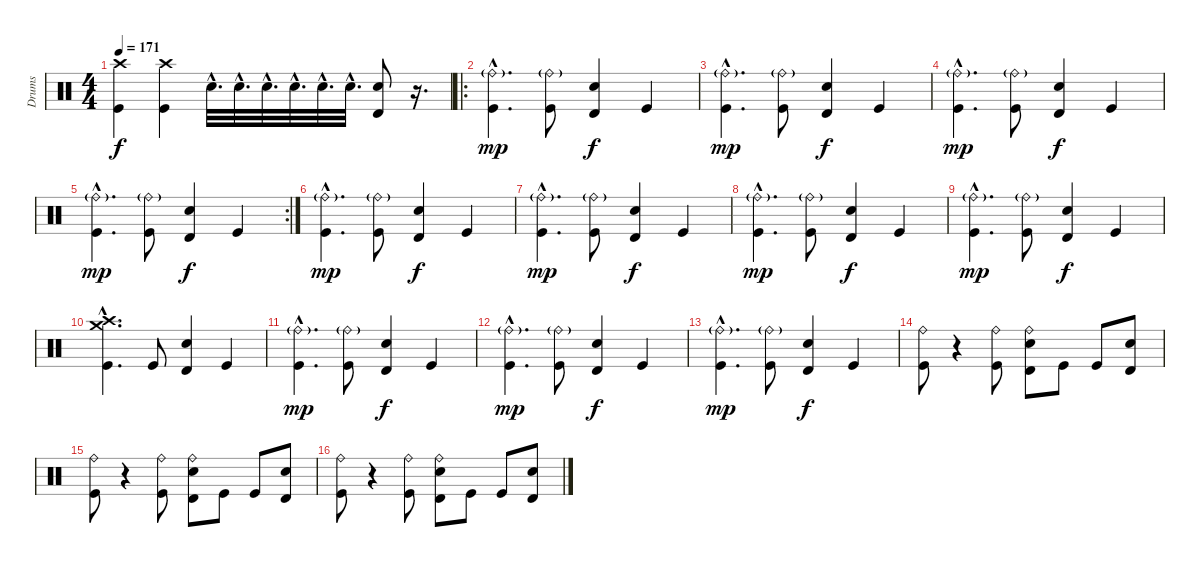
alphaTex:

\track ("Drums" "Drums") {instrument percussion}
\staff {score}
\articulation defaults
\ts (4 4)
\tempo 171
\clef neutral
\ks c
("Crash high (hit)" "Kick (hit)").4{dy f} ("Crash high (hit)" "Kick (hit)").4 "Electric Snare (hit)"{hac}.32{d} "Electric Snare (hit)"{hac}.32{d} "Electric Snare (hit)"{hac}.32{d} "Electric Snare (hit)"{hac}.32{d} "Electric Snare (hit)"{hac}.32{d} "Electric Snare (hit)"{hac}.32{d} ("Electric Snare (hit)" "Timbale high (hit)").8 r.16{d} |
\ro
("Ride (bell)"{g hac} "Kick (hit)"{hac}).4{d dy mp} ("Ride (bell)"{g} "Kick (hit)").8 ("Timbale high (hit)" "Electric Snare (hit)").4{dy f} "Kick (hit)".4 |
("Ride (bell)"{g hac} "Kick (hit)"{hac}).4{d dy mp} ("Ride (bell)"{g} "Kick (hit)").8 ("Timbale high (hit)" "Electric Snare (hit)").4{dy f} "Kick (hit)".4 |
("Ride (bell)"{g hac} "Kick (hit)"{hac}).4{d dy mp} ("Ride (bell)"{g} "Kick (hit)").8 ("Timbale high (hit)" "Electric Snare (hit)").4{dy f} "Kick (hit)".4 |
\rc 2
("Ride (bell)"{g hac} "Kick (hit)"{hac}).4{d dy mp} ("Ride (bell)"{g} "Kick (hit)").8 ("Timbale high (hit)" "Electric Snare (hit)").4{dy f} "Kick (hit)".4 |
("Ride (bell)"{g hac} "Kick (hit)"{hac}).4{d dy mp} ("Ride (bell)"{g} "Kick (hit)").8 ("Timbale high (hit)" "Electric Snare (hit)").4{dy f} "Kick (hit)".4 |
("Ride (bell)"{g hac} "Kick (hit)"{hac}).4{d dy mp} ("Ride (bell)"{g} "Kick (hit)").8 ("Timbale high (hit)" "Electric Snare (hit)").4{dy f} "Kick (hit)".4 |
("Ride (bell)"{g hac} "Kick (hit)"{hac}).4{d dy mp} ("Ride (bell)"{g} "Kick (hit)").8 ("Timbale high (hit)" "Electric Snare (hit)").4{dy f} "Kick (hit)".4 |
("Ride (bell)"{g hac} "Kick (hit)"{hac}).4{d dy mp} ("Ride (bell)"{g} "Kick (hit)").8 ("Timbale high (hit)" "Electric Snare (hit)").4{dy f} "Kick (hit)".4 |
("Crash medium (hit)"{hac} "Crash high (hit)"{hac} "Kick (hit)"{hac}).4{d} "Kick (hit)".8 ("Timbale high (hit)" "Electric Snare (hit)").4 "Kick (hit)".4 |
("Ride (bell)"{g hac} "Kick (hit)"{hac}).4{d dy mp} ("Ride (bell)"{g} "Kick (hit)").8 ("Timbale high (hit)" "Electric Snare (hit)").4{dy f} "Kick (hit)".4 |
("Ride (bell)"{g hac} "Kick (hit)"{hac}).4{d dy mp} ("Ride (bell)"{g} "Kick (hit)").8 ("Timbale high (hit)" "Electric Snare (hit)").4{dy f} "Kick (hit)".4 |
("Ride (bell)"{g hac} "Kick (hit)"{hac}).4{d dy mp} ("Ride (bell)"{g} "Kick (hit)").8 ("Timbale high (hit)" "Electric Snare (hit)").4{dy f} "Kick (hit)".4 |
("Ride (bell)" "Kick (hit)").8 r.4 ("Ride (bell)" "Kick (hit)").8 ("Ride (bell)" "Timbale high (hit)" "Electric Snare (hit)").8 "Kick (hit)".8 "Kick (hit)".8 ("Timbale high (hit)" "Electric Snare (hit)").8 |
("Ride (bell)" "Kick (hit)").8 r.4 ("Ride (bell)" "Kick (hit)").8 ("Ride (bell)" "Timbale high (hit)" "Electric Snare (hit)").8 "Kick (hit)".8 "Kick (hit)".8 ("Timbale high (hit)" "Electric Snare (hit)").8 |
("Ride (bell)" "Kick (hit)").8 r.4 ("Ride (bell)" "Kick (hit)").8 ("Ride (bell)" "Timbale high (hit)" "Electric Snare (hit)").8 "Kick (hit)".8 "Kick (hit)".8 ("Timbale high (hit)" "Electric Snare (hit)").8
